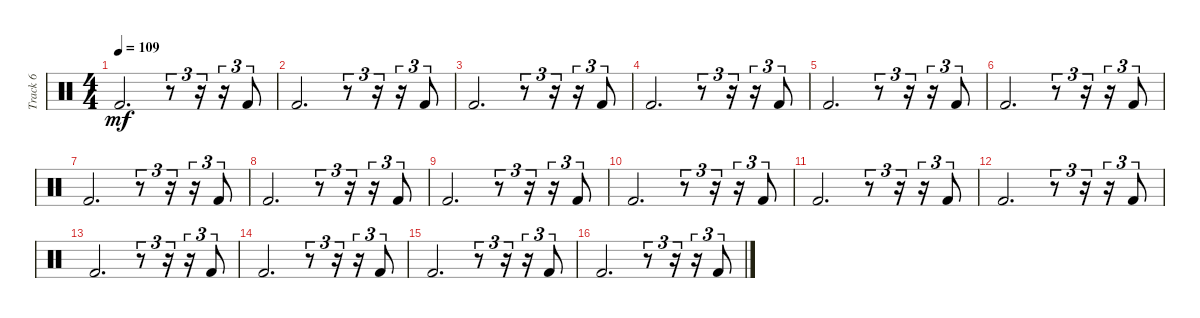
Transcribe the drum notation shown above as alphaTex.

\track ("Track 6" "Track 6") {instrument percussion}
\staff {score}
\articulation defaults
\ts (4 4)
\tempo 109
\clef neutral
\ks c "Kick (hit) 2".2{d dy mf}
r.8{tu (3 2)} r.16{tu (3 2)} r.16{tu (3 2)} "Kick (hit) 2".8{tu (3 2)} |
"Kick (hit) 2".2{d} r.8{tu (3 2)} r.16{tu (3 2)} r.16{tu (3 2)} "Kick (hit) 2".8{tu (3 2)} |
"Kick (hit) 2".2{d} r.8{tu (3 2)} r.16{tu (3 2)} r.16{tu (3 2)} "Kick (hit) 2".8{tu (3 2)} |
"Kick (hit) 2".2{d} r.8{tu (3 2)} r.16{tu (3 2)} r.16{tu (3 2)} "Kick (hit) 2".8{tu (3 2)} |
"Kick (hit) 2".2{d} r.8{tu (3 2)} r.16{tu (3 2)} r.16{tu (3 2)} "Kick (hit) 2".8{tu (3 2)} |
"Kick (hit) 2".2{d} r.8{tu (3 2)} r.16{tu (3 2)} r.16{tu (3 2)} "Kick (hit) 2".8{tu (3 2)} |
"Kick (hit) 2".2{d} r.8{tu (3 2)} r.16{tu (3 2)} r.16{tu (3 2)} "Kick (hit) 2".8{tu (3 2)} |
"Kick (hit) 2".2{d} r.8{tu (3 2)} r.16{tu (3 2)} r.16{tu (3 2)} "Kick (hit) 2".8{tu (3 2)} |
"Kick (hit) 2".2{d} r.8{tu (3 2)} r.16{tu (3 2)} r.16{tu (3 2)} "Kick (hit) 2".8{tu (3 2)} |
"Kick (hit) 2".2{d} r.8{tu (3 2)} r.16{tu (3 2)} r.16{tu (3 2)} "Kick (hit) 2".8{tu (3 2)} |
"Kick (hit) 2".2{d} r.8{tu (3 2)} r.16{tu (3 2)} r.16{tu (3 2)} "Kick (hit) 2".8{tu (3 2)} |
"Kick (hit) 2".2{d} r.8{tu (3 2)} r.16{tu (3 2)} r.16{tu (3 2)} "Kick (hit) 2".8{tu (3 2)} |
"Kick (hit) 2".2{d} r.8{tu (3 2)} r.16{tu (3 2)} r.16{tu (3 2)} "Kick (hit) 2".8{tu (3 2)} |
"Kick (hit) 2".2{d} r.8{tu (3 2)} r.16{tu (3 2)} r.16{tu (3 2)} "Kick (hit) 2".8{tu (3 2)} |
"Kick (hit) 2".2{d} r.8{tu (3 2)} r.16{tu (3 2)} r.16{tu (3 2)} "Kick (hit) 2".8{tu (3 2)} |
"Kick (hit) 2".2{d} r.8{tu (3 2)} r.16{tu (3 2)} r.16{tu (3 2)} "Kick (hit) 2".8{tu (3 2)}
